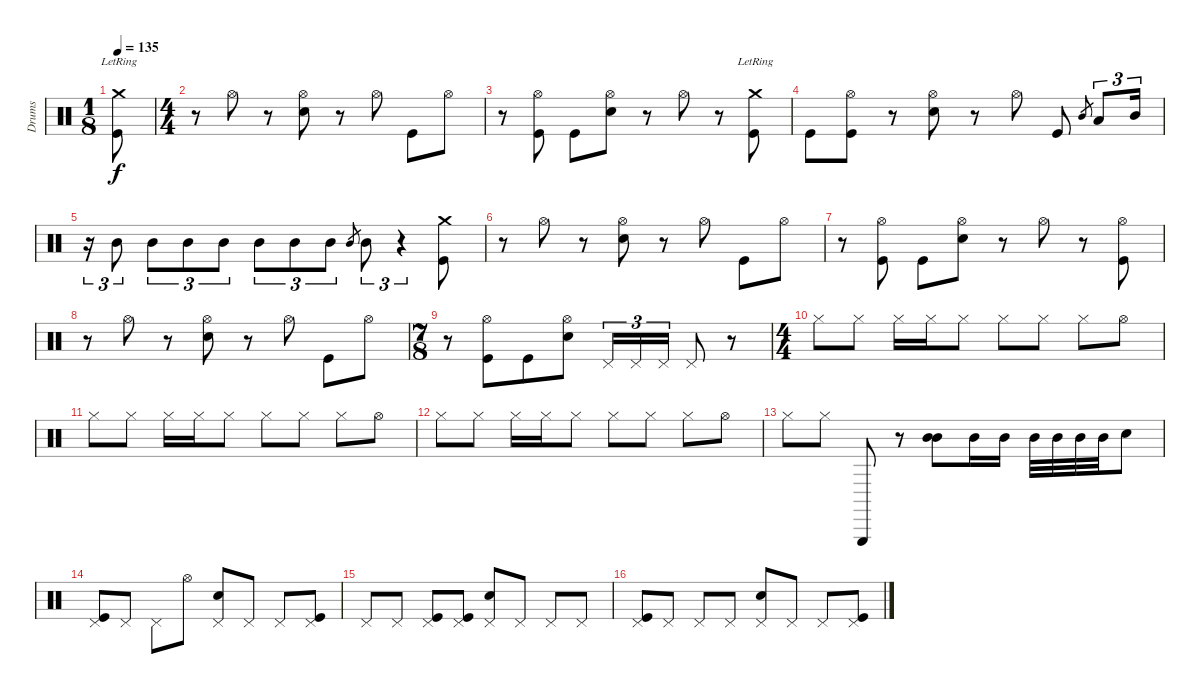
\track ("Drums" "Drums") {instrument percussion}
\staff {score}
\articulation defaults
\ts (1 8)
\tempo 135
\clef neutral
\ks c
("Crash medium (hit)"{lr} "Kick (hit)").8{dy f} |
\ts (4 4)
r.8 "Hi-Hat (open)".8 r.8 ("Hi-Hat (open)" "Snare (hit) 2").8 r.8 "Hi-Hat (open)".8 "Kick (hit)".8 "Hi-Hat (open)".8 |
r.8 ("Hi-Hat (open)" "Kick (hit)").8 "Kick (hit)".8 ("Hi-Hat (open)" "Snare (hit) 2").8 r.8 "Hi-Hat (open)".8 r.8 ("Crash medium (hit)"{lr} "Kick (hit)").8 |
"Kick (hit)".8 ("Hi-Hat (open)" "Kick (hit)").8 r.8 ("Hi-Hat (open)" "Snare (hit) 2").8 r.8 "Hi-Hat (open)".8 "Kick (hit)".8 "Mid Tom (hit)".8{gr} "Low Tom (hit)".8{tu (3 2)} "Mid Tom (hit)".16{tu (3 2)} |
r.16{tu (3 2)} "Mid Tom (hit)".8{tu (3 2)} "Mid Tom (hit)".8{tu (3 2)} "Mid Tom (hit)".8{tu (3 2)} "Mid Tom (hit)".8{tu (3 2)} "Mid Tom (hit)".8{tu (3 2)} "Mid Tom (hit)".8{tu (3 2)} "Mid Tom (hit)".8{tu (3 2)} "Mid Tom (hit)".8{gr} "Mid Tom (hit)".8{tu (3 2)} r.4{tu (3 2)} ("Crash medium (hit)" "Kick (hit)").8 |
r.8 "Hi-Hat (open)".8 r.8 ("Hi-Hat (open)" "Snare (hit) 2").8 r.8 "Hi-Hat (open)".8 "Kick (hit)".8 "Hi-Hat (open)".8 |
r.8 ("Hi-Hat (open)" "Kick (hit)").8 "Kick (hit)".8 ("Hi-Hat (open)" "Snare (hit) 2").8 r.8 "Hi-Hat (open)".8 r.8 ("Hi-Hat (open)" "Kick (hit)").8 |
r.8 "Hi-Hat (open)".8 r.8 ("Hi-Hat (open)" "Snare (hit) 2").8 r.8 "Hi-Hat (open)".8 "Kick (hit)".8 "Hi-Hat (open)".8 |
\ts (7 8)
r.8 ("Hi-Hat (open)" "Kick (hit)").8 "Kick (hit)".8 ("Hi-Hat (open)" "Snare (hit) 2").8 "Pedal Hi-Hat (hit)".16{tu (3 2)} "Pedal Hi-Hat (hit)".16{tu (3 2)} "Pedal Hi-Hat (hit)".16{tu (3 2)} "Pedal Hi-Hat (hit)".8 r.8 |
\ts (4 4)
"Hi-Hat (closed)".8 "Hi-Hat (closed)".8 "Hi-Hat (closed)".16 "Hi-Hat (closed)".16 "Hi-Hat (closed)".8 "Hi-Hat (closed)".8 "Hi-Hat (closed)".8 "Hi-Hat (closed)".8 "Hi-Hat (open)".8 |
"Hi-Hat (closed)".8 "Hi-Hat (closed)".8 "Hi-Hat (closed)".16 "Hi-Hat (closed)".16 "Hi-Hat (closed)".8 "Hi-Hat (closed)".8 "Hi-Hat (closed)".8 "Hi-Hat (closed)".8 "Hi-Hat (open)".8 |
"Hi-Hat (closed)".8 "Hi-Hat (closed)".8 "Hi-Hat (closed)".16 "Hi-Hat (closed)".16 "Hi-Hat (closed)".8 "Hi-Hat (closed)".8 "Hi-Hat (closed)".8 "Hi-Hat (closed)".8 "Hi-Hat (open)".8 |
"Hi-Hat (closed)".8 "Hi-Hat (closed)".8 "Triangle (hit)".8 r.8 ("Mid Tom (hit)" "Mid Tom (hit)").8{bd 120} "Mid Tom (hit)".16 "Mid Tom (hit)".16 "Mid Tom (hit)".32 "Mid Tom (hit)".32 "Mid Tom (hit)".32 "Mid Tom (hit)".32 "Snare (hit) 2".8 |
("Pedal Hi-Hat (hit)" "Kick (hit)").8 "Pedal Hi-Hat (hit)".8 "Pedal Hi-Hat (hit)".8 "Hi-Hat (open)".8 ("Pedal Hi-Hat (hit)" "Snare (hit) 2").8 "Pedal Hi-Hat (hit)".8 "Pedal Hi-Hat (hit)".8 ("Pedal Hi-Hat (hit)" "Kick (hit)").8 |
"Pedal Hi-Hat (hit)".8 "Pedal Hi-Hat (hit)".8 ("Pedal Hi-Hat (hit)" "Kick (hit)").8 ("Pedal Hi-Hat (hit)" "Kick (hit)").8 ("Pedal Hi-Hat (hit)" "Snare (hit) 2").8 "Pedal Hi-Hat (hit)".8 "Pedal Hi-Hat (hit)".8 "Pedal Hi-Hat (hit)".8 |
("Pedal Hi-Hat (hit)" "Kick (hit)").8 "Pedal Hi-Hat (hit)".8 "Pedal Hi-Hat (hit)".8 "Pedal Hi-Hat (hit)".8 ("Pedal Hi-Hat (hit)" "Snare (hit) 2").8 "Pedal Hi-Hat (hit)".8 "Pedal Hi-Hat (hit)".8 ("Pedal Hi-Hat (hit)" "Kick (hit)").8
